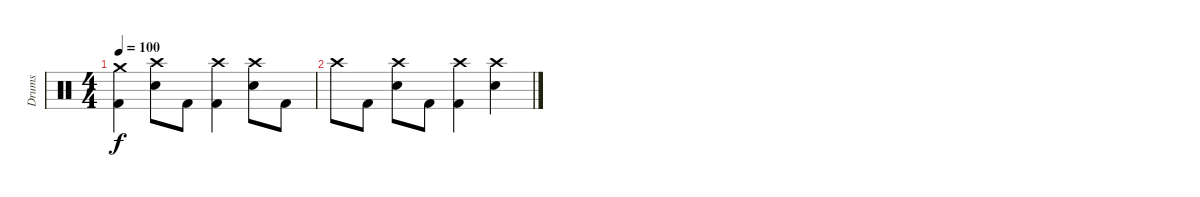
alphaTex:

\track ("Drums" "Drums") {instrument percussion}
\staff {score}
\articulation defaults
\ts (4 4)
\tempo 100
\clef neutral
\ks c
("Kick (hit) 2" "Crash medium (hit)").4{dy f} ("Electric Snare (hit)" "Crash high (hit)").8 "Kick (hit) 2".8 ("Kick (hit) 2" "Crash high (hit)").4 ("Electric Snare (hit)" "Crash high (hit)").8 "Kick (hit) 2".8 |
"Crash high (hit)".8 "Kick (hit) 2".8 ("Electric Snare (hit)" "Crash high (hit)").8 "Kick (hit) 2".8 ("Kick (hit) 2" "Crash high (hit)").4 ("Electric Snare (hit)" "Crash high (hit)").4
